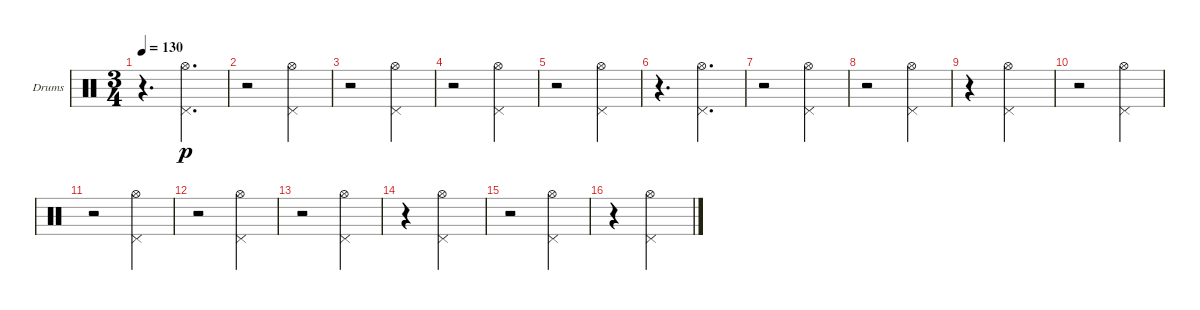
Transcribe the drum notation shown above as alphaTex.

\bracketExtendMode groupsimilarinstruments
\firstSystemTrackNameOrientation horizontal
\otherSystemsTrackNameOrientation horizontal
\track ("HH" "Drums") {instrument percussion}
\staff {score}
\articulation defaults
\ts (3 4)
\tempo 130
\clef neutral
\ks c
r.4{d dy p} ("Pedal Hi-Hat (hit)" "Hi-Hat (open)").4{d} |
r.2 ("Pedal Hi-Hat (hit)" "Hi-Hat (open)").4 |
r.2 ("Pedal Hi-Hat (hit)" "Hi-Hat (open)").4 |
r.2 ("Pedal Hi-Hat (hit)" "Hi-Hat (open)").4 |
r.2 ("Pedal Hi-Hat (hit)" "Hi-Hat (open)").4 |
r.4{d} ("Pedal Hi-Hat (hit)" "Hi-Hat (open)").4{d} |
r.2 ("Pedal Hi-Hat (hit)" "Hi-Hat (open)").4 |
r.2 ("Pedal Hi-Hat (hit)" "Hi-Hat (open)").4 |
r.4 ("Pedal Hi-Hat (hit)" "Hi-Hat (open)").2 |
r.2 ("Pedal Hi-Hat (hit)" "Hi-Hat (open)").4 |
r.2 ("Pedal Hi-Hat (hit)" "Hi-Hat (open)").4 |
r.2 ("Pedal Hi-Hat (hit)" "Hi-Hat (open)").4 |
r.2 ("Pedal Hi-Hat (hit)" "Hi-Hat (open)").4 |
r.4 ("Pedal Hi-Hat (hit)" "Hi-Hat (open)").2 |
r.2 ("Pedal Hi-Hat (hit)" "Hi-Hat (open)").4 |
r.4 ("Pedal Hi-Hat (hit)" "Hi-Hat (open)").2
